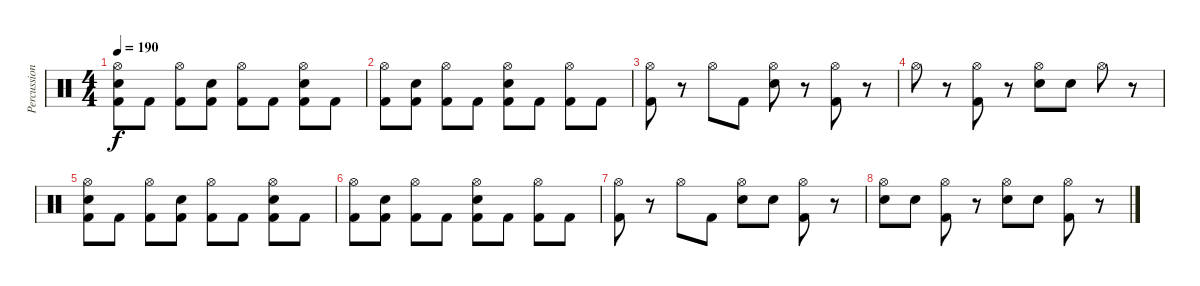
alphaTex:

\track ("Percussion" "Percussion") {instrument percussion}
\staff {score}
\articulation defaults
\ts (4 4)
\tempo 190
\clef neutral
\ks c
("Hi-Hat (open)" "Kick (hit) 2" "Electric Snare (hit)").8{dy f} "Kick (hit) 2".8 ("Hi-Hat (open)" "Kick (hit) 2").8 ("Kick (hit) 2" "Electric Snare (hit)").8 ("Hi-Hat (open)" "Kick (hit) 2").8 "Kick (hit) 2".8 ("Hi-Hat (open)" "Kick (hit) 2" "Electric Snare (hit)").8 "Kick (hit) 2".8 |
("Hi-Hat (open)" "Kick (hit) 2").8 ("Kick (hit) 2" "Electric Snare (hit)").8 ("Hi-Hat (open)" "Kick (hit) 2").8 "Kick (hit) 2".8 ("Hi-Hat (open)" "Kick (hit) 2" "Electric Snare (hit)").8 "Kick (hit) 2".8 ("Hi-Hat (open)" "Kick (hit) 2").8 "Kick (hit) 2".8 |
("Hi-Hat (open)" "Kick (hit) 2").8 r.8 "Hi-Hat (open)".8 "Kick (hit) 2".8 ("Hi-Hat (open)" "Electric Snare (hit)").8 r.8 ("Hi-Hat (open)" "Kick (hit) 2").8 r.8 |
"Hi-Hat (open)".8 r.8 ("Hi-Hat (open)" "Kick (hit) 2").8 r.8 ("Hi-Hat (open)" "Electric Snare (hit)").8 "Electric Snare (hit)".8 "Hi-Hat (open)".8 r.8 |
("Hi-Hat (open)" "Kick (hit) 2" "Electric Snare (hit)").8 "Kick (hit) 2".8 ("Hi-Hat (open)" "Kick (hit) 2").8 ("Kick (hit) 2" "Electric Snare (hit)").8 ("Hi-Hat (open)" "Kick (hit) 2").8 "Kick (hit) 2".8 ("Hi-Hat (open)" "Kick (hit) 2" "Electric Snare (hit)").8 "Kick (hit) 2".8 |
("Hi-Hat (open)" "Kick (hit) 2").8 ("Kick (hit) 2" "Electric Snare (hit)").8 ("Hi-Hat (open)" "Kick (hit) 2").8 "Kick (hit) 2".8 ("Hi-Hat (open)" "Kick (hit) 2" "Electric Snare (hit)").8 "Kick (hit) 2".8 ("Hi-Hat (open)" "Kick (hit) 2").8 "Kick (hit) 2".8 |
("Hi-Hat (open)" "Kick (hit) 2").8 r.8 "Hi-Hat (open)".8 "Kick (hit) 2".8 ("Hi-Hat (open)" "Electric Snare (hit)").8 "Electric Snare (hit)".8 ("Hi-Hat (open)" "Kick (hit) 2").8 r.8 |
("Hi-Hat (open)" "Electric Snare (hit)").8 "Electric Snare (hit)".8 ("Hi-Hat (open)" "Kick (hit) 2").8 r.8 ("Hi-Hat (open)" "Electric Snare (hit)").8 "Electric Snare (hit)".8 ("Hi-Hat (open)" "Kick (hit) 2").8 r.8
